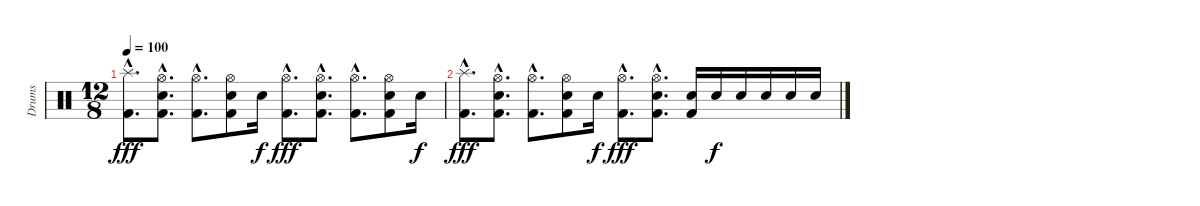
\track ("Drums" "Drums") {instrument percussion}
\staff {score}
\articulation defaults
\ts (12 8)
\tempo 100
\clef neutral
\ks c
("Splash (hit)"{hac} "Kick (hit) 2"{hac}).8{d dy fff} ("Hi-Hat (open)"{hac} "Snare (hit) 2"{hac} "Kick (hit) 2"{hac}).8{d} ("Hi-Hat (open)"{hac} "Kick (hit) 2"{hac}).8{d} ("Hi-Hat (open)" "Snare (hit) 2" "Kick (hit) 2").8 "Snare (hit) 2".16{dy f} ("Hi-Hat (open)"{hac} "Kick (hit) 2"{hac}).8{d dy fff} ("Hi-Hat (open)"{hac} "Snare (hit) 2"{hac} "Kick (hit) 2"{hac}).8{d} ("Hi-Hat (open)"{hac} "Kick (hit) 2"{hac}).8{d} ("Hi-Hat (open)" "Snare (hit) 2" "Kick (hit) 2").8 "Snare (hit) 2".16{dy f} |
("Splash (hit)"{hac} "Kick (hit) 2"{hac}).8{d dy fff} ("Hi-Hat (open)"{hac} "Snare (hit) 2"{hac} "Kick (hit) 2"{hac}).8{d} ("Hi-Hat (open)"{hac} "Kick (hit) 2"{hac}).8{d} ("Hi-Hat (open)" "Snare (hit) 2" "Kick (hit) 2").8 "Snare (hit) 2".16{dy f} ("Hi-Hat (open)"{hac} "Kick (hit) 2"{hac}).8{d dy fff} ("Hi-Hat (open)"{hac} "Snare (hit) 2"{hac} "Kick (hit) 2"{hac}).8{d} ("Snare (hit) 2" "Kick (hit) 2").16 "Snare (hit) 2".16{dy f} "Snare (hit) 2".16 "Snare (hit) 2".16 "Snare (hit) 2".16 "Snare (hit) 2".16
